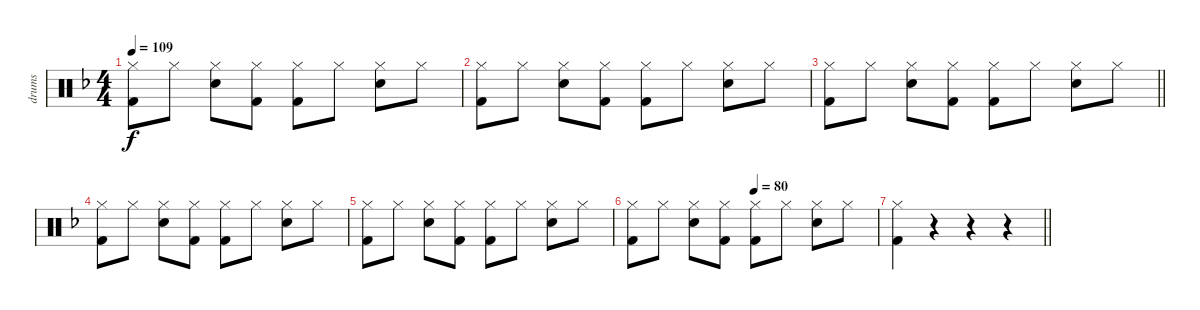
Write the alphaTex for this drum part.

\track ("drums" "drums") {instrument percussion}
\staff {score}
\articulation defaults
\ts (4 4)
\tempo 109
\clef neutral
\ks f
("Hi-Hat (closed)" "Kick (hit) 2").8{dy f} "Hi-Hat (closed)".8 ("Hi-Hat (closed)" "Electric Snare (hit)").8 ("Hi-Hat (closed)" "Kick (hit) 2").8 ("Hi-Hat (closed)" "Kick (hit) 2").8 "Hi-Hat (closed)".8 ("Hi-Hat (closed)" "Electric Snare (hit)").8 "Hi-Hat (closed)".8 |
("Hi-Hat (closed)" "Kick (hit) 2").8 "Hi-Hat (closed)".8 ("Hi-Hat (closed)" "Electric Snare (hit)").8 ("Hi-Hat (closed)" "Kick (hit) 2").8 ("Hi-Hat (closed)" "Kick (hit) 2").8 "Hi-Hat (closed)".8 ("Hi-Hat (closed)" "Electric Snare (hit)").8 "Hi-Hat (closed)".8 |
\barLineRight lightlight
("Hi-Hat (closed)" "Kick (hit) 2").8 "Hi-Hat (closed)".8 ("Hi-Hat (closed)" "Electric Snare (hit)").8 ("Hi-Hat (closed)" "Kick (hit) 2").8 ("Hi-Hat (closed)" "Kick (hit) 2").8 "Hi-Hat (closed)".8 ("Hi-Hat (closed)" "Electric Snare (hit)").8 "Hi-Hat (closed)".8 |
("Hi-Hat (closed)" "Kick (hit) 2").8 "Hi-Hat (closed)".8 ("Hi-Hat (closed)" "Electric Snare (hit)").8 ("Hi-Hat (closed)" "Kick (hit) 2").8 ("Hi-Hat (closed)" "Kick (hit) 2").8 "Hi-Hat (closed)".8 ("Hi-Hat (closed)" "Electric Snare (hit)").8 "Hi-Hat (closed)".8 |
("Hi-Hat (closed)" "Kick (hit) 2").8 "Hi-Hat (closed)".8 ("Hi-Hat (closed)" "Electric Snare (hit)").8 ("Hi-Hat (closed)" "Kick (hit) 2").8 ("Hi-Hat (closed)" "Kick (hit) 2").8 "Hi-Hat (closed)".8 ("Hi-Hat (closed)" "Electric Snare (hit)").8 "Hi-Hat (closed)".8 |
\tempo (80 0.5)
("Hi-Hat (closed)" "Kick (hit) 2").8 "Hi-Hat (closed)".8 ("Hi-Hat (closed)" "Electric Snare (hit)").8 ("Hi-Hat (closed)" "Kick (hit) 2").8 ("Hi-Hat (closed)" "Kick (hit) 2").8 "Hi-Hat (closed)".8 ("Hi-Hat (closed)" "Electric Snare (hit)").8 "Hi-Hat (closed)".8 |
\barLineRight lightlight
("Hi-Hat (closed)" "Kick (hit) 2").4 r.4 r.4 r.4
